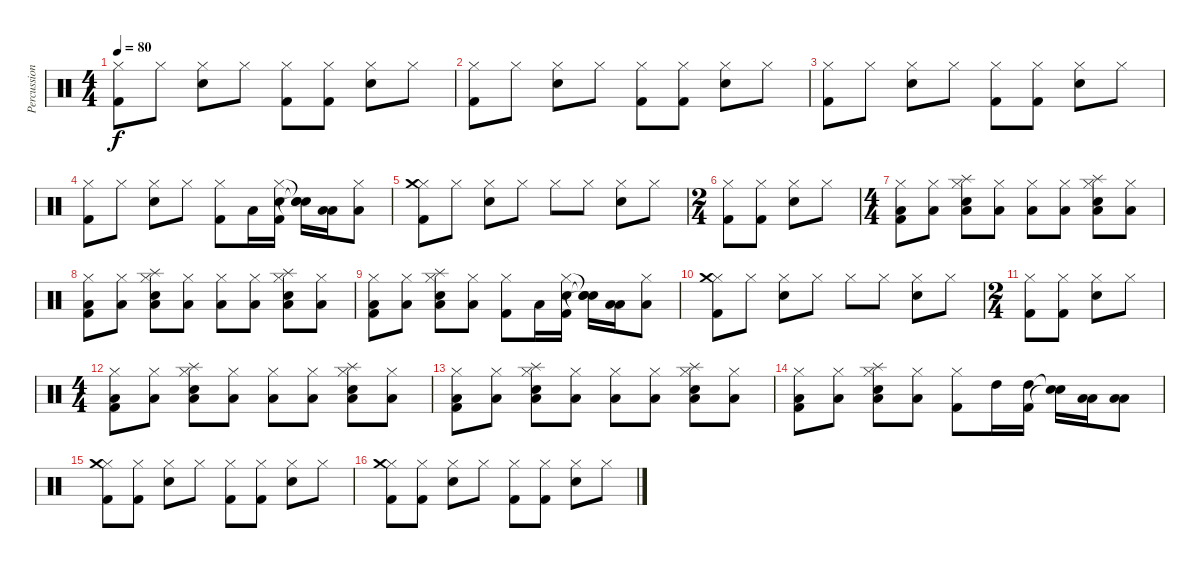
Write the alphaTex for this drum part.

\track ("Percussion" "Percussion") {instrument percussion}
\staff {score}
\articulation defaults
\ts (4 4)
\tempo 80
\clef neutral
\ks c
("Hi-Hat (closed)" "Kick (hit) 2").8{dy f} "Hi-Hat (closed)".8 ("Hi-Hat (closed)" "Snare (hit) 2").8 "Hi-Hat (closed)".8 ("Hi-Hat (closed)" "Kick (hit) 2").8 ("Hi-Hat (closed)" "Kick (hit) 2").8 ("Hi-Hat (closed)" "Snare (hit) 2").8 "Hi-Hat (closed)".8 |
("Hi-Hat (closed)" "Kick (hit) 2").8 "Hi-Hat (closed)".8 ("Hi-Hat (closed)" "Snare (hit) 2").8 "Hi-Hat (closed)".8 ("Hi-Hat (closed)" "Kick (hit) 2").8 ("Hi-Hat (closed)" "Kick (hit) 2").8 ("Hi-Hat (closed)" "Snare (hit) 2").8 "Hi-Hat (closed)".8 |
("Hi-Hat (closed)" "Kick (hit) 2").8 "Hi-Hat (closed)".8 ("Hi-Hat (closed)" "Snare (hit) 2").8 "Hi-Hat (closed)".8 ("Hi-Hat (closed)" "Kick (hit) 2").8 ("Hi-Hat (closed)" "Kick (hit) 2").8 ("Hi-Hat (closed)" "Snare (hit) 2").8 "Hi-Hat (closed)".8 |
("Hi-Hat (closed)" "Kick (hit) 2").8 "Hi-Hat (closed)".8 ("Hi-Hat (closed)" "Snare (hit) 2").8 "Hi-Hat (closed)".8 ("Hi-Hat (closed)" "Kick (hit) 2").8 "Low Tom (hit)".16 ("Hi-Hat (closed)" "Snare (hit) 2" "Kick (hit) 2").16 ("Snare (hit)"{t} "Snare (hit)"{t} "Snare (hit)"{t}).16 ("Low Tom (hit)" "Low Tom (hit)").16 ("Hi-Hat (closed)" "Low Tom (hit)").8 |
("Hi-Hat (closed)" "Kick (hit) 2" "Crash medium (hit)").8 "Hi-Hat (closed)".8 ("Hi-Hat (closed)" "Snare (hit) 2").8 "Hi-Hat (closed)".8 "Hi-Hat (closed)".8 "Hi-Hat (closed)".8 ("Hi-Hat (closed)" "Snare (hit) 2").8 "Hi-Hat (closed)".8 |
\ts (2 4)
("Hi-Hat (closed)" "Kick (hit) 2").8 ("Hi-Hat (closed)" "Kick (hit) 2").8 ("Hi-Hat (closed)" "Snare (hit) 2").8 "Hi-Hat (closed)".8 |
\ts (4 4)
("Hi-Hat (closed)" "Kick (hit) 2" "Low Tom (hit)").8 ("Hi-Hat (closed)" "Low Tom (hit)").8 ("Hi-Hat (closed)" "Snare (hit) 2" "Low Tom (hit)" "Splash (hit)").8 ("Hi-Hat (closed)" "Low Tom (hit)").8 ("Hi-Hat (closed)" "Low Tom (hit)").8 ("Hi-Hat (closed)" "Low Tom (hit)").8 ("Hi-Hat (closed)" "Snare (hit) 2" "Low Tom (hit)" "Splash (hit)").8 ("Hi-Hat (closed)" "Low Tom (hit)").8 |
("Hi-Hat (closed)" "Kick (hit) 2" "Low Tom (hit)").8 ("Hi-Hat (closed)" "Low Tom (hit)").8 ("Hi-Hat (closed)" "Snare (hit) 2" "Low Tom (hit)" "Splash (hit)").8 ("Hi-Hat (closed)" "Low Tom (hit)").8 ("Hi-Hat (closed)" "Low Tom (hit)").8 ("Hi-Hat (closed)" "Low Tom (hit)").8 ("Hi-Hat (closed)" "Snare (hit) 2" "Low Tom (hit)" "Splash (hit)").8 ("Hi-Hat (closed)" "Low Tom (hit)").8 |
("Hi-Hat (closed)" "Kick (hit) 2" "Low Tom (hit)").8 ("Hi-Hat (closed)" "Low Tom (hit)").8 ("Hi-Hat (closed)" "Snare (hit) 2" "Low Tom (hit)" "Splash (hit)").8 ("Hi-Hat (closed)" "Low Tom (hit)").8 ("Hi-Hat (closed)" "Kick (hit) 2").8 "Low Tom (hit)".16 ("Hi-Hat (closed)" "Snare (hit) 2" "Kick (hit) 2").16 ("Snare (hit)"{t} "Snare (hit)"{t} "Snare (hit)"{t}).16 ("Low Tom (hit)" "Low Tom (hit)").16 ("Hi-Hat (closed)" "Low Tom (hit)").8 |
("Hi-Hat (closed)" "Kick (hit) 2" "Crash medium (hit)").8 "Hi-Hat (closed)".8 ("Hi-Hat (closed)" "Snare (hit) 2").8 "Hi-Hat (closed)".8 "Hi-Hat (closed)".8 "Hi-Hat (closed)".8 ("Hi-Hat (closed)" "Snare (hit) 2").8 "Hi-Hat (closed)".8 |
\ts (2 4)
("Hi-Hat (closed)" "Kick (hit) 2").8 ("Hi-Hat (closed)" "Kick (hit) 2").8 ("Hi-Hat (closed)" "Snare (hit) 2").8 "Hi-Hat (closed)".8 |
\ts (4 4)
("Hi-Hat (closed)" "Kick (hit) 2" "Low Tom (hit)").8 ("Hi-Hat (closed)" "Low Tom (hit)").8 ("Hi-Hat (closed)" "Snare (hit) 2" "Low Tom (hit)" "Splash (hit)").8 ("Hi-Hat (closed)" "Low Tom (hit)").8 ("Hi-Hat (closed)" "Low Tom (hit)").8 ("Hi-Hat (closed)" "Low Tom (hit)").8 ("Hi-Hat (closed)" "Snare (hit) 2" "Low Tom (hit)" "Splash (hit)").8 ("Hi-Hat (closed)" "Low Tom (hit)").8 |
("Hi-Hat (closed)" "Kick (hit) 2" "Low Tom (hit)").8 ("Hi-Hat (closed)" "Low Tom (hit)").8 ("Hi-Hat (closed)" "Snare (hit) 2" "Low Tom (hit)" "Splash (hit)").8 ("Hi-Hat (closed)" "Low Tom (hit)").8 ("Hi-Hat (closed)" "Low Tom (hit)").8 ("Hi-Hat (closed)" "Low Tom (hit)").8 ("Hi-Hat (closed)" "Snare (hit) 2" "Low Tom (hit)" "Splash (hit)").8 ("Hi-Hat (closed)" "Low Tom (hit)").8 |
("Hi-Hat (closed)" "Kick (hit) 2" "Low Tom (hit)").8 ("Hi-Hat (closed)" "Low Tom (hit)").8 ("Hi-Hat (closed)" "Snare (hit) 2" "Low Tom (hit)" "Splash (hit)").8 ("Hi-Hat (closed)" "Low Tom (hit)").8 ("Hi-Hat (closed)" "Kick (hit) 2").8 "High Tom (hit)".16 ("High Tom (hit)" "Kick (hit) 2").16 ("Snare (hit)"{t} "Snare (hit)"{t}).16 ("Low Floor Tom (hit)" "Low Tom (hit)").16 ("Low Floor Tom (hit)" "Low Tom (hit)").8 |
("Hi-Hat (closed)" "Kick (hit) 2" "Crash medium (hit)").8 ("Hi-Hat (closed)" "Kick (hit) 2").8 ("Hi-Hat (closed)" "Snare (hit) 2").8 "Hi-Hat (closed)".8 ("Hi-Hat (closed)" "Kick (hit) 2").8 ("Hi-Hat (closed)" "Kick (hit) 2").8 ("Hi-Hat (closed)" "Snare (hit) 2").8 "Hi-Hat (closed)".8 |
("Hi-Hat (closed)" "Kick (hit) 2" "Crash medium (hit)").8 ("Hi-Hat (closed)" "Kick (hit) 2").8 ("Hi-Hat (closed)" "Snare (hit) 2").8 "Hi-Hat (closed)".8 ("Hi-Hat (closed)" "Kick (hit) 2").8 ("Hi-Hat (closed)" "Kick (hit) 2").8 ("Hi-Hat (closed)" "Snare (hit) 2").8 "Hi-Hat (closed)".8
